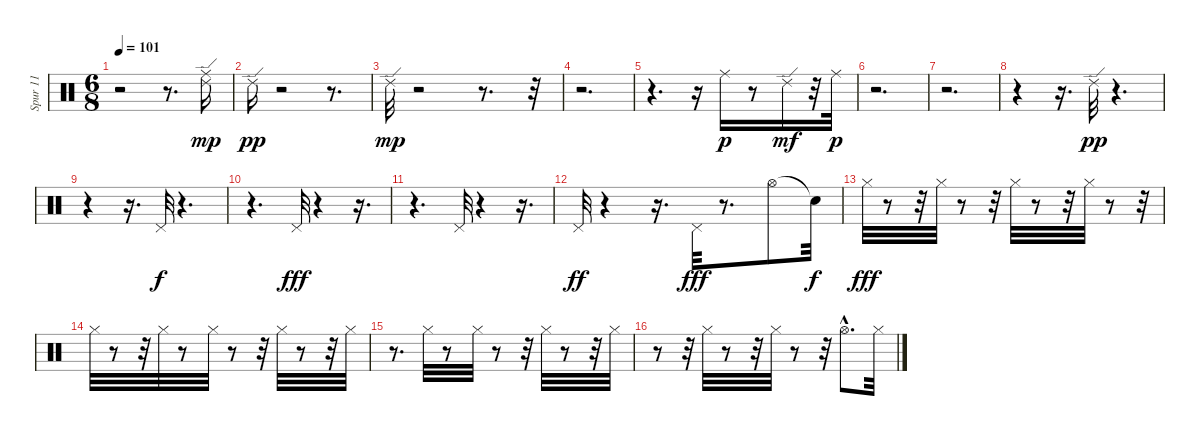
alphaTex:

\track ("Spur 11" "Spur 11") {instrument percussion}
\staff {score}
\articulation defaults
\ts (6 8)
\tempo 101
\clef neutral
\ks c
r.2{dy mp} r.8{d} ("Ride (edge) 2" "Ride (middle)").16 |
"Ride (edge) 2".16{dy pp} r.2 r.8{d} |
"Ride (edge) 2".32{dy mp} r.2 r.8{d} r.32 |
r.2{d} |
r.4{d} r.16 "Ride (middle)".16{dy p} r.8 "Ride (edge) 2".16{dy mf} r.32 "Ride (middle)".32{dy p} |
r.2{d} |
r.2{d} |
r.4 r.16{d} "Ride (edge) 2".32{dy pp} r.4{d} |
r.4 r.16{d} "Pedal Hi-Hat (hit)".32{dy f} r.4{d} |
r.4{d} "Pedal Hi-Hat (hit)".32{dy fff} r.4 r.16{d} |
r.4{d} "Pedal Hi-Hat (hit)".32 r.4 r.16{d} |
"Pedal Hi-Hat (hit)".32{dy ff} r.4 r.16{d} "Pedal Hi-Hat (hit)".32{dy fff} r.8{d} "Hi-Hat (open)".8 "Snare (hit)"{t}.32{dy f} |
"Hi-Hat (closed)".32{dy fff} r.8 r.32 "Hi-Hat (closed)".32 r.8 r.32 "Hi-Hat (closed)".32 r.8 r.32 "Hi-Hat (closed)".32 r.8 r.32 |
"Hi-Hat (closed)".32 r.8 r.32 "Hi-Hat (closed)".32 r.8 "Hi-Hat (closed)".32 r.8 r.32 "Hi-Hat (closed)".32 r.8 r.32 "Hi-Hat (closed)".32 |
r.8{d} "Hi-Hat (closed)".32 r.8 "Hi-Hat (closed)".32 r.8 r.32 "Hi-Hat (closed)".32 r.8 r.32 "Hi-Hat (closed)".32 |
r.8 r.32 "Hi-Hat (closed)".32 r.8 r.32 "Hi-Hat (closed)".32 r.8 r.32 "Hi-Hat (open)"{hac}.8{d} "Hi-Hat (closed)".32
